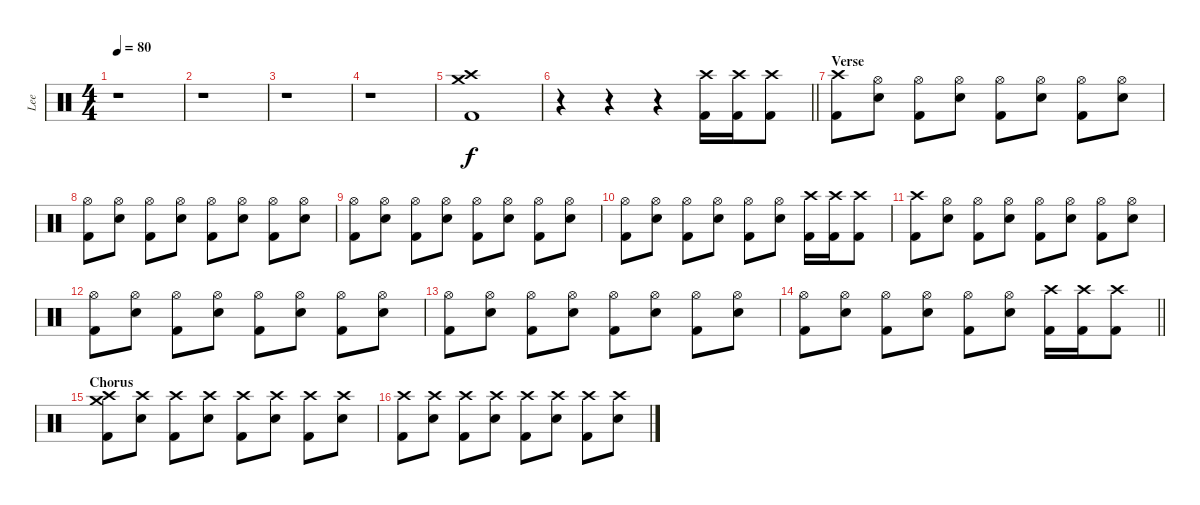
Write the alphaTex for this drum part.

\track ("Lee" "Lee") {instrument percussion}
\staff {score}
\articulation defaults
\ts (4 4)
\tempo 80
\clef neutral
\ks c
r.1{dy f} |
r.1 |
r.1 |
r.1 |
("Crash medium (hit)" "Crash high (hit)" "Kick (hit) 2").1 |
\barLineRight lightlight
r.4 r.4 r.4 ("Crash high (hit)" "Kick (hit) 2").16 ("Crash high (hit)" "Kick (hit) 2").16 ("Crash high (hit)" "Kick (hit) 2").8 |
\section ("" "Verse")
("Crash high (hit)" "Kick (hit) 2").8 ("Hi-Hat (open)" "Electric Snare (hit)").8 ("Hi-Hat (open)" "Kick (hit) 2").8 ("Hi-Hat (open)" "Electric Snare (hit)").8 ("Hi-Hat (open)" "Kick (hit) 2").8 ("Hi-Hat (open)" "Electric Snare (hit)").8 ("Hi-Hat (open)" "Kick (hit) 2").8 ("Hi-Hat (open)" "Electric Snare (hit)").8 |
("Hi-Hat (open)" "Kick (hit) 2").8 ("Hi-Hat (open)" "Electric Snare (hit)").8 ("Hi-Hat (open)" "Kick (hit) 2").8 ("Hi-Hat (open)" "Electric Snare (hit)").8 ("Hi-Hat (open)" "Kick (hit) 2").8 ("Hi-Hat (open)" "Electric Snare (hit)").8 ("Hi-Hat (open)" "Kick (hit) 2").8 ("Hi-Hat (open)" "Electric Snare (hit)").8 |
("Hi-Hat (open)" "Kick (hit) 2").8 ("Hi-Hat (open)" "Electric Snare (hit)").8 ("Hi-Hat (open)" "Kick (hit) 2").8 ("Hi-Hat (open)" "Electric Snare (hit)").8 ("Hi-Hat (open)" "Kick (hit) 2").8 ("Hi-Hat (open)" "Electric Snare (hit)").8 ("Hi-Hat (open)" "Kick (hit) 2").8 ("Hi-Hat (open)" "Electric Snare (hit)").8 |
("Hi-Hat (open)" "Kick (hit) 2").8 ("Hi-Hat (open)" "Electric Snare (hit)").8 ("Hi-Hat (open)" "Kick (hit) 2").8 ("Hi-Hat (open)" "Electric Snare (hit)").8 ("Hi-Hat (open)" "Kick (hit) 2").8 ("Hi-Hat (open)" "Electric Snare (hit)").8 ("Crash high (hit)" "Kick (hit) 2").16 ("Crash high (hit)" "Kick (hit) 2").16 ("Crash high (hit)" "Kick (hit) 2").8 |
("Crash high (hit)" "Kick (hit) 2").8 ("Hi-Hat (open)" "Electric Snare (hit)").8 ("Hi-Hat (open)" "Kick (hit) 2").8 ("Hi-Hat (open)" "Electric Snare (hit)").8 ("Hi-Hat (open)" "Kick (hit) 2").8 ("Hi-Hat (open)" "Electric Snare (hit)").8 ("Hi-Hat (open)" "Kick (hit) 2").8 ("Hi-Hat (open)" "Electric Snare (hit)").8 |
("Hi-Hat (open)" "Kick (hit) 2").8 ("Hi-Hat (open)" "Electric Snare (hit)").8 ("Hi-Hat (open)" "Kick (hit) 2").8 ("Hi-Hat (open)" "Electric Snare (hit)").8 ("Hi-Hat (open)" "Kick (hit) 2").8 ("Hi-Hat (open)" "Electric Snare (hit)").8 ("Hi-Hat (open)" "Kick (hit) 2").8 ("Hi-Hat (open)" "Electric Snare (hit)").8 |
("Hi-Hat (open)" "Kick (hit) 2").8 ("Hi-Hat (open)" "Electric Snare (hit)").8 ("Hi-Hat (open)" "Kick (hit) 2").8 ("Hi-Hat (open)" "Electric Snare (hit)").8 ("Hi-Hat (open)" "Kick (hit) 2").8 ("Hi-Hat (open)" "Electric Snare (hit)").8 ("Hi-Hat (open)" "Kick (hit) 2").8 ("Hi-Hat (open)" "Electric Snare (hit)").8 |
\barLineRight lightlight
("Hi-Hat (open)" "Kick (hit) 2").8 ("Hi-Hat (open)" "Electric Snare (hit)").8 ("Hi-Hat (open)" "Kick (hit) 2").8 ("Hi-Hat (open)" "Electric Snare (hit)").8 ("Hi-Hat (open)" "Kick (hit) 2").8 ("Hi-Hat (open)" "Electric Snare (hit)").8 ("Crash high (hit)" "Kick (hit) 2").16 ("Crash high (hit)" "Kick (hit) 2").16 ("Crash high (hit)" "Kick (hit) 2").8 |
\section ("" "Chorus")
("Crash high (hit)" "Crash medium (hit)" "Kick (hit) 2").8 ("Crash high (hit)" "Electric Snare (hit)").8 ("Crash high (hit)" "Kick (hit) 2").8 ("Crash high (hit)" "Electric Snare (hit)").8 ("Crash high (hit)" "Kick (hit) 2").8 ("Crash high (hit)" "Electric Snare (hit)").8 ("Crash high (hit)" "Kick (hit) 2").8 ("Crash high (hit)" "Electric Snare (hit)").8 |
("Crash high (hit)" "Kick (hit) 2").8 ("Crash high (hit)" "Electric Snare (hit)").8 ("Crash high (hit)" "Kick (hit) 2").8 ("Crash high (hit)" "Electric Snare (hit)").8 ("Crash high (hit)" "Kick (hit) 2").8 ("Crash high (hit)" "Electric Snare (hit)").8 ("Crash high (hit)" "Kick (hit) 2").8 ("Crash high (hit)" "Electric Snare (hit)").8
